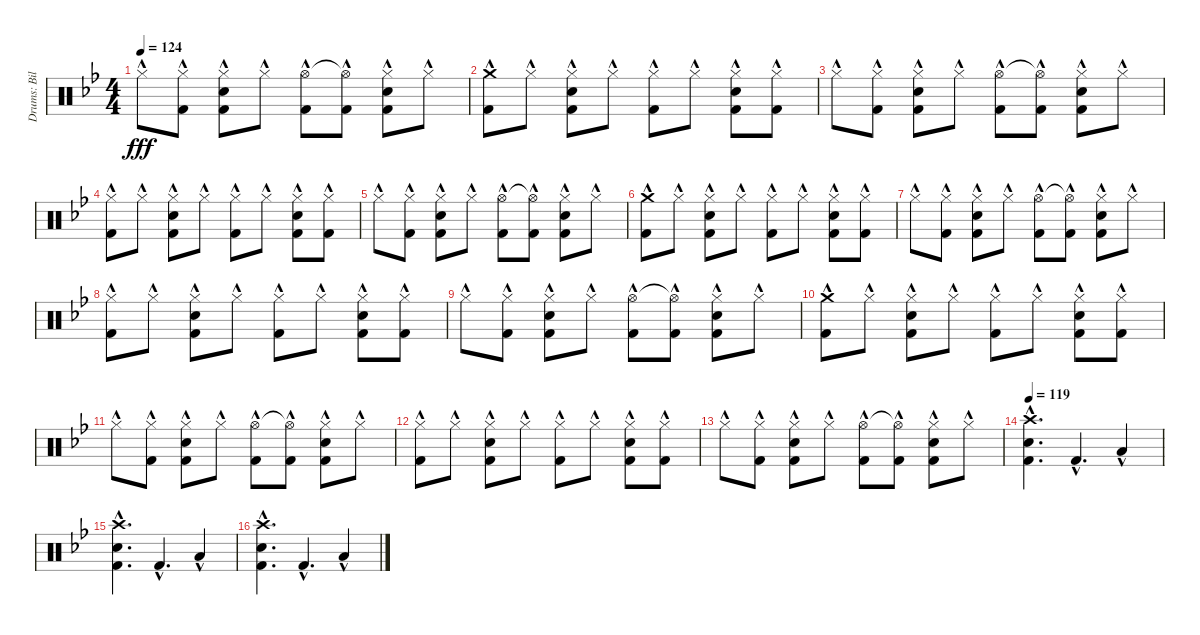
\track ("Drums: Bill" "Drums: Bil") {instrument percussion}
\staff {score}
\articulation defaults
\ts (4 4)
\tempo 124
\clef neutral
\ks bb "Hi-Hat (closed)"{hac}.8{dy fff}
("Hi-Hat (closed)"{hac} "Kick (hit) 2"{hac}).8 ("Hi-Hat (closed)"{hac} "Snare (hit) 2"{hac} "Kick (hit) 2"{hac}).8 "Hi-Hat (closed)"{hac}.8 ("Hi-Hat (open)"{hac} "Kick (hit) 2"{hac}).8 ("Hi-Hat (open)"{t} "Kick (hit) 2"{hac}).8 ("Hi-Hat (closed)"{hac} "Snare (hit) 2"{hac} "Kick (hit) 2"{hac}).8 "Hi-Hat (closed)"{hac}.8 |
("Crash medium (hit)"{hac} "Kick (hit) 2"{hac}).8 "Hi-Hat (closed)"{hac}.8 ("Hi-Hat (closed)"{hac} "Snare (hit) 2"{hac} "Kick (hit) 2"{hac}).8 "Hi-Hat (closed)"{hac}.8 ("Hi-Hat (closed)"{hac} "Kick (hit) 2"{hac}).8 "Hi-Hat (closed)"{hac}.8 ("Hi-Hat (closed)"{hac} "Snare (hit) 2"{hac} "Kick (hit) 2"{hac}).8 ("Hi-Hat (closed)"{hac} "Kick (hit) 2"{hac}).8 |
"Hi-Hat (closed)"{hac}.8 ("Hi-Hat (closed)"{hac} "Kick (hit) 2"{hac}).8 ("Hi-Hat (closed)"{hac} "Snare (hit) 2"{hac} "Kick (hit) 2"{hac}).8 "Hi-Hat (closed)"{hac}.8 ("Hi-Hat (open)"{hac} "Kick (hit) 2"{hac}).8 ("Hi-Hat (open)"{t} "Kick (hit) 2"{hac}).8 ("Hi-Hat (closed)"{hac} "Snare (hit) 2"{hac} "Kick (hit) 2"{hac}).8 "Hi-Hat (closed)"{hac}.8 |
("Hi-Hat (closed)"{hac} "Kick (hit) 2"{hac}).8 "Hi-Hat (closed)"{hac}.8 ("Hi-Hat (closed)"{hac} "Snare (hit) 2"{hac} "Kick (hit) 2"{hac}).8 "Hi-Hat (closed)"{hac}.8 ("Hi-Hat (closed)"{hac} "Kick (hit) 2"{hac}).8 "Hi-Hat (closed)"{hac}.8 ("Hi-Hat (closed)"{hac} "Snare (hit) 2"{hac} "Kick (hit) 2"{hac}).8 ("Hi-Hat (closed)"{hac} "Kick (hit) 2"{hac}).8 |
"Hi-Hat (closed)"{hac}.8 ("Hi-Hat (closed)"{hac} "Kick (hit) 2"{hac}).8 ("Hi-Hat (closed)"{hac} "Snare (hit) 2"{hac} "Kick (hit) 2"{hac}).8 "Hi-Hat (closed)"{hac}.8 ("Hi-Hat (open)"{hac} "Kick (hit) 2"{hac}).8 ("Hi-Hat (open)"{t} "Kick (hit) 2"{hac}).8 ("Hi-Hat (closed)"{hac} "Snare (hit) 2"{hac} "Kick (hit) 2"{hac}).8 "Hi-Hat (closed)"{hac}.8 |
("Crash medium (hit)"{hac} "Kick (hit) 2"{hac}).8 "Hi-Hat (closed)"{hac}.8 ("Hi-Hat (closed)"{hac} "Snare (hit) 2"{hac} "Kick (hit) 2"{hac}).8 "Hi-Hat (closed)"{hac}.8 ("Hi-Hat (closed)"{hac} "Kick (hit) 2"{hac}).8 "Hi-Hat (closed)"{hac}.8 ("Hi-Hat (closed)"{hac} "Snare (hit) 2"{hac} "Kick (hit) 2"{hac}).8 ("Hi-Hat (closed)"{hac} "Kick (hit) 2"{hac}).8 |
"Hi-Hat (closed)"{hac}.8 ("Hi-Hat (closed)"{hac} "Kick (hit) 2"{hac}).8 ("Hi-Hat (closed)"{hac} "Snare (hit) 2"{hac} "Kick (hit) 2"{hac}).8 "Hi-Hat (closed)"{hac}.8 ("Hi-Hat (open)"{hac} "Kick (hit) 2"{hac}).8 ("Hi-Hat (open)"{t} "Kick (hit) 2"{hac}).8 ("Hi-Hat (closed)"{hac} "Snare (hit) 2"{hac} "Kick (hit) 2"{hac}).8 "Hi-Hat (closed)"{hac}.8 |
("Hi-Hat (closed)"{hac} "Kick (hit) 2"{hac}).8 "Hi-Hat (closed)"{hac}.8 ("Hi-Hat (closed)"{hac} "Snare (hit) 2"{hac} "Kick (hit) 2"{hac}).8 "Hi-Hat (closed)"{hac}.8 ("Hi-Hat (closed)"{hac} "Kick (hit) 2"{hac}).8 "Hi-Hat (closed)"{hac}.8 ("Hi-Hat (closed)"{hac} "Snare (hit) 2"{hac} "Kick (hit) 2"{hac}).8 ("Hi-Hat (closed)"{hac} "Kick (hit) 2"{hac}).8 |
"Hi-Hat (closed)"{hac}.8 ("Hi-Hat (closed)"{hac} "Kick (hit) 2"{hac}).8 ("Hi-Hat (closed)"{hac} "Snare (hit) 2"{hac} "Kick (hit) 2"{hac}).8 "Hi-Hat (closed)"{hac}.8 ("Hi-Hat (open)"{hac} "Kick (hit) 2"{hac}).8 ("Hi-Hat (open)"{t} "Kick (hit) 2"{hac}).8 ("Hi-Hat (closed)"{hac} "Snare (hit) 2"{hac} "Kick (hit) 2"{hac}).8 "Hi-Hat (closed)"{hac}.8 |
("Crash medium (hit)"{hac} "Kick (hit) 2"{hac}).8 "Hi-Hat (closed)"{hac}.8 ("Hi-Hat (closed)"{hac} "Snare (hit) 2"{hac} "Kick (hit) 2"{hac}).8 "Hi-Hat (closed)"{hac}.8 ("Hi-Hat (closed)"{hac} "Kick (hit) 2"{hac}).8 "Hi-Hat (closed)"{hac}.8 ("Hi-Hat (closed)"{hac} "Snare (hit) 2"{hac} "Kick (hit) 2"{hac}).8 ("Hi-Hat (closed)"{hac} "Kick (hit) 2"{hac}).8 |
"Hi-Hat (closed)"{hac}.8 ("Hi-Hat (closed)"{hac} "Kick (hit) 2"{hac}).8 ("Hi-Hat (closed)"{hac} "Snare (hit) 2"{hac} "Kick (hit) 2"{hac}).8 "Hi-Hat (closed)"{hac}.8 ("Hi-Hat (open)"{hac} "Kick (hit) 2"{hac}).8 ("Hi-Hat (open)"{t} "Kick (hit) 2"{hac}).8 ("Hi-Hat (closed)"{hac} "Snare (hit) 2"{hac} "Kick (hit) 2"{hac}).8 "Hi-Hat (closed)"{hac}.8 |
("Hi-Hat (closed)"{hac} "Kick (hit) 2"{hac}).8 "Hi-Hat (closed)"{hac}.8 ("Hi-Hat (closed)"{hac} "Snare (hit) 2"{hac} "Kick (hit) 2"{hac}).8 "Hi-Hat (closed)"{hac}.8 ("Hi-Hat (closed)"{hac} "Kick (hit) 2"{hac}).8 "Hi-Hat (closed)"{hac}.8 ("Hi-Hat (closed)"{hac} "Snare (hit) 2"{hac} "Kick (hit) 2"{hac}).8 ("Hi-Hat (closed)"{hac} "Kick (hit) 2"{hac}).8 |
"Hi-Hat (closed)"{hac}.8 ("Hi-Hat (closed)"{hac} "Kick (hit) 2"{hac}).8 ("Hi-Hat (closed)"{hac} "Snare (hit) 2"{hac} "Kick (hit) 2"{hac}).8 "Hi-Hat (closed)"{hac}.8 ("Hi-Hat (open)"{hac} "Kick (hit) 2"{hac}).8 ("Hi-Hat (open)"{t} "Kick (hit) 2"{hac}).8 ("Hi-Hat (closed)"{hac} "Snare (hit) 2"{hac} "Kick (hit) 2"{hac}).8 "Hi-Hat (closed)"{hac}.8 |
\tempo 119
("Crash high (hit)"{hac} "Snare (hit) 2"{hac} "Kick (hit) 2"{hac}).4{d} "Kick (hit) 2"{hac}.4{d} "Low Tom (hit)"{hac}.4 |
("Crash high (hit)"{hac} "Snare (hit) 2"{hac} "Kick (hit) 2"{hac}).4{d} "Kick (hit) 2"{hac}.4{d} "Low Tom (hit)"{hac}.4 |
("Crash high (hit)"{hac} "Snare (hit) 2"{hac} "Kick (hit) 2"{hac}).4{d} "Kick (hit) 2"{hac}.4{d} "Low Tom (hit)"{hac}.4
